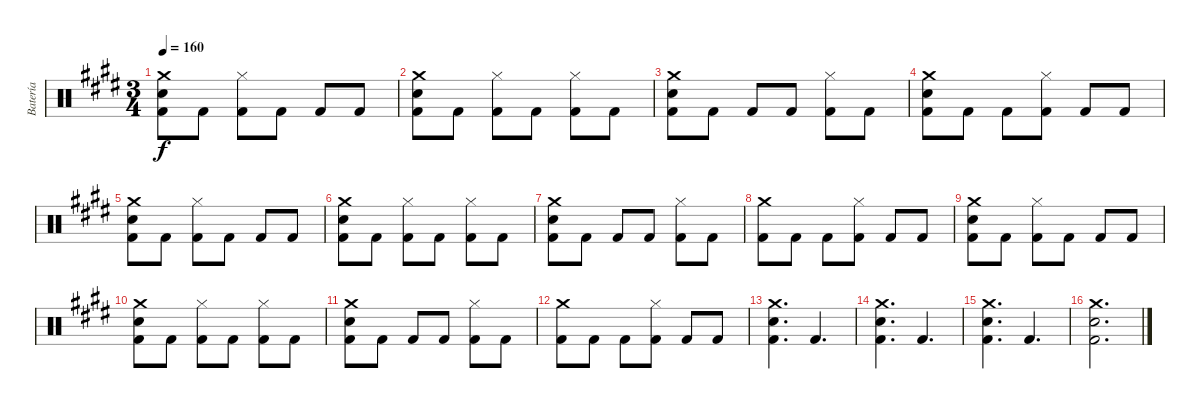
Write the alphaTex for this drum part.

\track ("Batería" "Batería") {instrument percussion}
\staff {score}
\articulation defaults
\ts (3 4)
\tempo 160
\clef neutral
\ks c#minor
("Crash medium (hit)" "Snare (hit) 2" "Kick (hit) 2").8{dy f} "Kick (hit) 2".8 ("Hi-Hat (closed)" "Kick (hit) 2").8 "Kick (hit) 2".8 "Kick (hit) 2".8 "Kick (hit) 2".8 |
("Crash medium (hit)" "Snare (hit) 2" "Kick (hit) 2").8 "Kick (hit) 2".8 ("Hi-Hat (closed)" "Kick (hit) 2").8 "Kick (hit) 2".8 ("Hi-Hat (closed)" "Kick (hit) 2").8 "Kick (hit) 2".8 |
("Crash medium (hit)" "Snare (hit) 2" "Kick (hit) 2").8 "Kick (hit) 2".8 "Kick (hit) 2".8 "Kick (hit) 2".8 ("Hi-Hat (closed)" "Kick (hit) 2").8 "Kick (hit) 2".8 |
("Crash medium (hit)" "Snare (hit) 2" "Kick (hit) 2").8 "Kick (hit) 2".8 "Kick (hit) 2".8 ("Hi-Hat (closed)" "Kick (hit) 2").8 "Kick (hit) 2".8 "Kick (hit) 2".8 |
("Crash medium (hit)" "Snare (hit) 2" "Kick (hit) 2").8 "Kick (hit) 2".8 ("Hi-Hat (closed)" "Kick (hit) 2").8 "Kick (hit) 2".8 "Kick (hit) 2".8 "Kick (hit) 2".8 |
("Crash medium (hit)" "Snare (hit) 2" "Kick (hit) 2").8 "Kick (hit) 2".8 ("Hi-Hat (closed)" "Kick (hit) 2").8 "Kick (hit) 2".8 ("Hi-Hat (closed)" "Kick (hit) 2").8 "Kick (hit) 2".8 |
("Crash medium (hit)" "Snare (hit) 2" "Kick (hit) 2").8 "Kick (hit) 2".8 "Kick (hit) 2".8 "Kick (hit) 2".8 ("Hi-Hat (closed)" "Kick (hit) 2").8 "Kick (hit) 2".8 |
("Crash medium (hit)" "Kick (hit) 2").8 "Kick (hit) 2".8 "Kick (hit) 2".8 ("Hi-Hat (closed)" "Kick (hit) 2").8 "Kick (hit) 2".8 "Kick (hit) 2".8 |
("Crash medium (hit)" "Snare (hit) 2" "Kick (hit) 2").8 "Kick (hit) 2".8 ("Hi-Hat (closed)" "Kick (hit) 2").8 "Kick (hit) 2".8 "Kick (hit) 2".8 "Kick (hit) 2".8 |
("Crash medium (hit)" "Snare (hit) 2" "Kick (hit) 2").8 "Kick (hit) 2".8 ("Hi-Hat (closed)" "Kick (hit) 2").8 "Kick (hit) 2".8 ("Hi-Hat (closed)" "Kick (hit) 2").8 "Kick (hit) 2".8 |
("Crash medium (hit)" "Snare (hit) 2" "Kick (hit) 2").8 "Kick (hit) 2".8 "Kick (hit) 2".8 "Kick (hit) 2".8 ("Hi-Hat (closed)" "Kick (hit) 2").8 "Kick (hit) 2".8 |
("Crash medium (hit)" "Kick (hit) 2").8 "Kick (hit) 2".8 "Kick (hit) 2".8 ("Hi-Hat (closed)" "Kick (hit) 2").8 "Kick (hit) 2".8 "Kick (hit) 2".8 |
("Crash medium (hit)" "Snare (hit) 2" "Kick (hit) 2").4{d} "Kick (hit) 2".4{d} |
("Crash medium (hit)" "Snare (hit) 2" "Kick (hit) 2").4{d} "Kick (hit) 2".4{d} |
("Crash medium (hit)" "Snare (hit) 2" "Kick (hit) 2").4{d} "Kick (hit) 2".4{d} |
("Crash medium (hit)" "Snare (hit) 2" "Kick (hit) 2").2{d}
